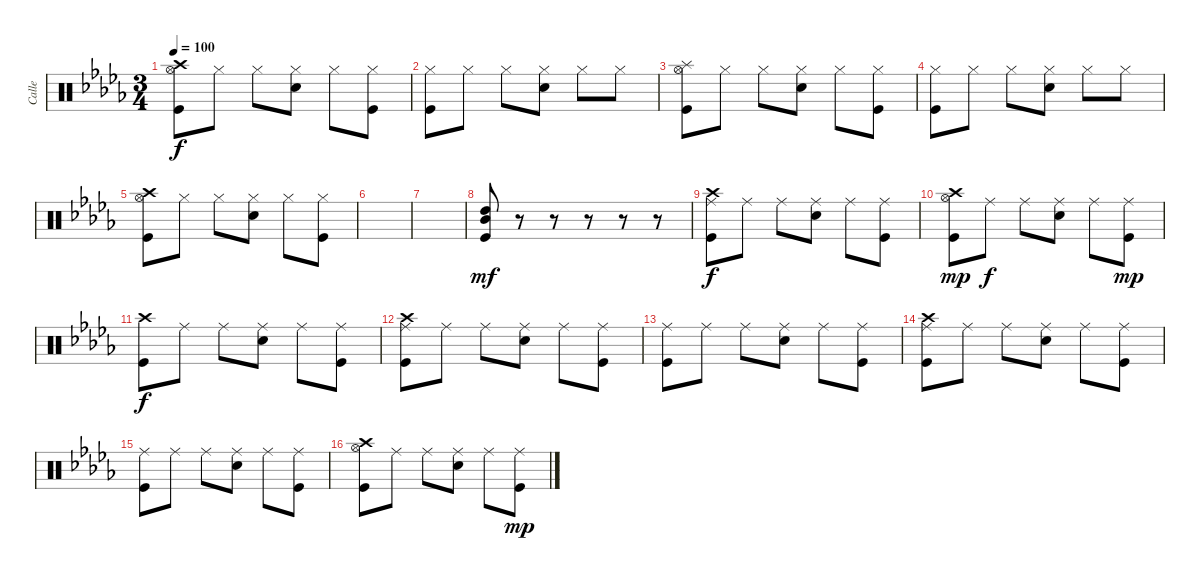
\track ("Calle" "Calle") {instrument percussion}
\staff {score}
\articulation defaults
\ts (3 4)
\tempo 100
\clef neutral
\ks bbminor
("Crash high (hit)" "Hi-Hat (open)" "Kick (hit)").8{dy f} "Hi-Hat (closed)".8 "Hi-Hat (closed)".8 ("Hi-Hat (closed)" "Electric Snare (hit)").8 "Hi-Hat (closed)".8 ("Hi-Hat (closed)" "Kick (hit)").8 |
("Hi-Hat (closed)" "Kick (hit)").8 "Hi-Hat (closed)".8 "Hi-Hat (closed)".8 ("Hi-Hat (closed)" "Electric Snare (hit)").8 "Hi-Hat (closed)".8 "Hi-Hat (closed)".8 |
("Splash (hit)" "Hi-Hat (open)" "Kick (hit)").8 "Hi-Hat (closed)".8 "Hi-Hat (closed)".8 ("Hi-Hat (closed)" "Electric Snare (hit)").8 "Hi-Hat (closed)".8 ("Hi-Hat (closed)" "Kick (hit)").8 |
("Hi-Hat (closed)" "Kick (hit)").8 "Hi-Hat (closed)".8 "Hi-Hat (closed)".8 ("Hi-Hat (closed)" "Electric Snare (hit)").8 "Hi-Hat (closed)".8 "Hi-Hat (closed)".8 |
("Crash high (hit)" "Hi-Hat (open)" "Kick (hit)").8 "Hi-Hat (closed)".8 "Hi-Hat (closed)".8 ("Hi-Hat (closed)" "Electric Snare (hit)").8 "Hi-Hat (closed)".8 ("Hi-Hat (closed)" "Kick (hit)").8 |
|
|
("High Tom (hit)" "Mid Tom (hit)" "Kick (hit)").8{dy mf} r.8 r.8 r.8 r.8 r.8 |
("Crash high (hit)" "Ride (middle)" "Kick (hit)").8{dy f} "Ride (middle)".8 "Ride (middle)".8 ("Ride (middle)" "Electric Snare (hit)").8 "Ride (middle)".8 ("Ride (middle)" "Kick (hit)").8 |
("Crash high (hit)" "Hi-Hat (open)" "Kick (hit)").8{dy mp} "Ride (middle)".8{dy f} "Ride (middle)".8 ("Ride (middle)" "Electric Snare (hit)").8 "Ride (middle)".8 ("Ride (middle)" "Kick (hit)").8{dy mp} |
("Crash high (hit)" "Kick (hit)").8{dy f} "Ride (middle)".8 "Ride (middle)".8 ("Ride (middle)" "Electric Snare (hit)").8 "Ride (middle)".8 ("Ride (middle)" "Kick (hit)").8 |
("Crash high (hit)" "Ride (middle)" "Kick (hit)").8 "Ride (middle)".8 "Ride (middle)".8 ("Ride (middle)" "Electric Snare (hit)").8 "Ride (middle)".8 ("Ride (middle)" "Kick (hit)").8 |
("Ride (middle)" "Kick (hit)").8 "Ride (middle)".8 "Ride (middle)".8 ("Ride (middle)" "Electric Snare (hit)").8 "Ride (middle)".8 ("Ride (middle)" "Kick (hit)").8 |
("Crash high (hit)" "Ride (middle)" "Kick (hit)").8 "Ride (middle)".8 "Ride (middle)".8 ("Ride (middle)" "Electric Snare (hit)").8 "Ride (middle)".8 ("Ride (middle)" "Kick (hit)").8 |
("Ride (middle)" "Kick (hit)").8 "Ride (middle)".8 "Ride (middle)".8 ("Ride (middle)" "Electric Snare (hit)").8 "Ride (middle)".8 ("Ride (middle)" "Kick (hit)").8 |
("Crash high (hit)" "Hi-Hat (open)" "Kick (hit)").8 "Ride (middle)".8 "Ride (middle)".8 ("Ride (middle)" "Electric Snare (hit)").8 "Ride (middle)".8 ("Ride (middle)" "Kick (hit)").8{dy mp}
